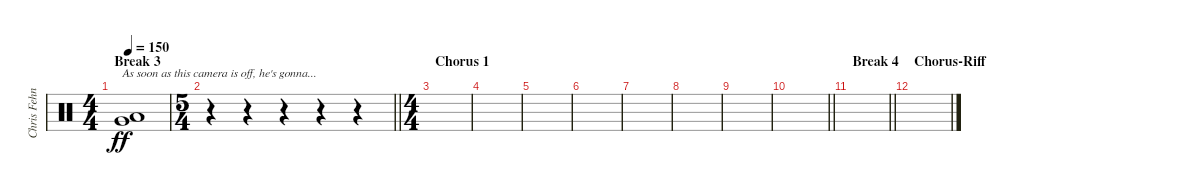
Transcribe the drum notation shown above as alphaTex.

\track ("Chris Fehn" "Chris Fehn") {instrument percussion}
\staff {score}
\articulation defaults
\ts (4 4)
\section ("" "Break 3")
\tempo 150
\clef neutral
\ks c
("Very Low Tom (hit)" "Low Floor Tom (hit)").1{txt "As soon as this camera is off, he's gonna..." dy ff} |
\ts (5 4)
\barLineRight lightlight
r.4 r.4 r.4 r.4 r.4 |
\ts (4 4)
\section ("" "Chorus 1")
|
|
|
|
|
|
|
\barLineRight lightlight
|
\section ("" "Break 4")
\barLineRight lightlight
|
\section ("" "Chorus-Riff ")
